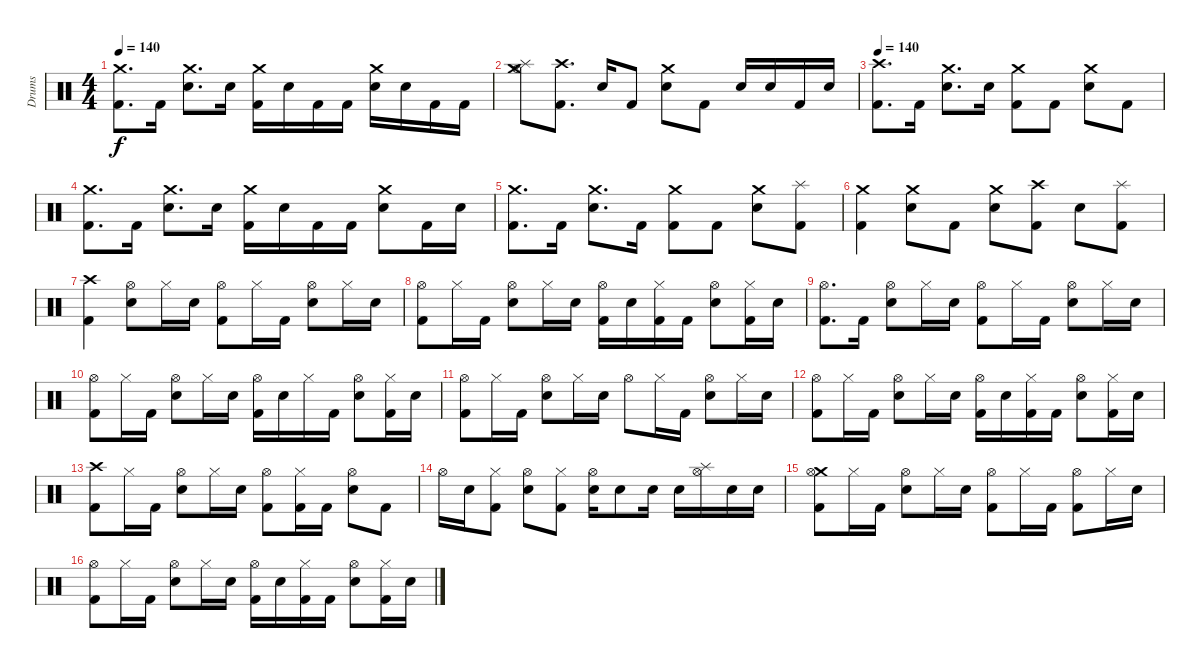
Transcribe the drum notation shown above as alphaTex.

\track ("Drums" "Drums") {instrument percussion}
\staff {score}
\articulation defaults
\ts (4 4)
\tempo 140
\clef neutral
\ks c
("Crash medium (hit)" "Kick (hit) 2").8{d dy f} "Kick (hit) 2".16 ("Crash medium (hit)" "Electric Snare (hit)").8{d} "Electric Snare (hit)".16 ("Crash medium (hit)" "Kick (hit) 2").16 "Electric Snare (hit)".16 "Kick (hit) 2".16 "Kick (hit) 2".16 ("Crash medium (hit)" "Electric Snare (hit)").16 "Electric Snare (hit)".16 "Kick (hit) 2".16 "Kick (hit) 2".16 |
("Crash medium (hit)" "Splash (hit)" "Hi-Hat (open)").8 ("Crash high (hit)" "Kick (hit) 2").8{d} "Electric Snare (hit)".16 "Kick (hit) 2".8 ("Crash medium (hit)" "Electric Snare (hit)").8 "Kick (hit) 2".8 "Electric Snare (hit)".16 "Electric Snare (hit)".16 "Kick (hit) 2".16 "Electric Snare (hit)".16 |
\tempo 140
("Crash high (hit)" "Kick (hit) 2").8{d} "Kick (hit) 2".16 ("Crash medium (hit)" "Electric Snare (hit)").8{d} "Electric Snare (hit)".16 ("Crash medium (hit)" "Kick (hit) 2").8 "Kick (hit) 2".8 ("Crash medium (hit)" "Electric Snare (hit)").8 "Kick (hit) 2".8 |
("Crash medium (hit)" "Kick (hit) 2").8{d} "Kick (hit) 2".16 ("Crash medium (hit)" "Electric Snare (hit)").8{d} "Electric Snare (hit)".16 ("Crash medium (hit)" "Kick (hit) 2").16 "Electric Snare (hit)".16 "Kick (hit) 2".16 "Kick (hit) 2".16 ("Crash medium (hit)" "Electric Snare (hit)").8 "Kick (hit) 2".16 "Electric Snare (hit)".16 |
("Crash medium (hit)" "Kick (hit) 2").8{d} "Kick (hit) 2".16 ("Crash medium (hit)" "Electric Snare (hit)").8{d} "Kick (hit) 2".16 ("Crash medium (hit)" "Kick (hit) 2").8 "Kick (hit) 2".8 ("Crash medium (hit)" "Electric Snare (hit)").8 ("Splash (hit)" "Kick (hit) 2").8 |
("Crash medium (hit)" "Kick (hit) 2").4 ("Crash medium (hit)" "Electric Snare (hit)").8 "Kick (hit) 2".8 ("Crash medium (hit)" "Electric Snare (hit)").8 ("Crash high (hit)" "Kick (hit) 2").8 "Electric Snare (hit)".8 ("Splash (hit)" "Kick (hit) 2").8 |
("Crash high (hit)" "Kick (hit) 2").4 ("Hi-Hat (open)" "Electric Snare (hit)").8 "Hi-Hat (closed)".16 "Electric Snare (hit)".16 ("Hi-Hat (open)" "Kick (hit) 2").8 "Hi-Hat (closed)".16 "Kick (hit) 2".16 ("Hi-Hat (open)" "Electric Snare (hit)").8 "Hi-Hat (closed)".16 "Electric Snare (hit)".16 |
("Hi-Hat (open)" "Kick (hit) 2").8 "Hi-Hat (closed)".16 "Kick (hit) 2".16 ("Hi-Hat (open)" "Electric Snare (hit)").8 "Hi-Hat (closed)".16 "Electric Snare (hit)".16 ("Hi-Hat (open)" "Kick (hit) 2").16 "Electric Snare (hit)".16 ("Hi-Hat (closed)" "Kick (hit) 2").16 "Kick (hit) 2".16 ("Hi-Hat (open)" "Electric Snare (hit)").8 ("Hi-Hat (closed)" "Kick (hit) 2").16 "Electric Snare (hit)".16 |
("Hi-Hat (open)" "Kick (hit) 2").8{d} "Kick (hit) 2".16 ("Hi-Hat (open)" "Electric Snare (hit)").8 "Hi-Hat (closed)".16 "Electric Snare (hit)".16 ("Hi-Hat (open)" "Kick (hit) 2").8 "Hi-Hat (closed)".16 "Kick (hit) 2".16 ("Hi-Hat (open)" "Electric Snare (hit)").8 "Hi-Hat (closed)".16 "Electric Snare (hit)".16 |
("Hi-Hat (open)" "Kick (hit) 2").8 "Hi-Hat (closed)".16 "Kick (hit) 2".16 ("Hi-Hat (open)" "Electric Snare (hit)").8 "Hi-Hat (closed)".16 "Electric Snare (hit)".16 ("Hi-Hat (open)" "Kick (hit) 2").16 "Electric Snare (hit)".16 "Hi-Hat (closed)".16 "Kick (hit) 2".16 ("Hi-Hat (open)" "Electric Snare (hit)").8 ("Hi-Hat (closed)" "Kick (hit) 2").16 "Electric Snare (hit)".16 |
("Hi-Hat (open)" "Kick (hit) 2").8 "Hi-Hat (closed)".16 "Kick (hit) 2".16 ("Hi-Hat (open)" "Electric Snare (hit)").8 "Hi-Hat (closed)".16 "Electric Snare (hit)".16 "Hi-Hat (open)".8 "Hi-Hat (closed)".16 "Kick (hit) 2".16 ("Hi-Hat (open)" "Electric Snare (hit)").8 "Hi-Hat (closed)".16 "Electric Snare (hit)".16 |
("Hi-Hat (open)" "Kick (hit) 2").8 "Hi-Hat (closed)".16 "Kick (hit) 2".16 ("Hi-Hat (open)" "Electric Snare (hit)").8 "Hi-Hat (closed)".16 "Electric Snare (hit)".16 ("Hi-Hat (open)" "Kick (hit) 2").16 "Electric Snare (hit)".16 ("Hi-Hat (closed)" "Kick (hit) 2").16 "Kick (hit) 2".16 ("Hi-Hat (open)" "Electric Snare (hit)").8 ("Hi-Hat (closed)" "Kick (hit) 2").16 "Electric Snare (hit)".16 |
("Crash high (hit)" "Kick (hit) 2").8 "Hi-Hat (closed)".16 "Kick (hit) 2".16 ("Hi-Hat (open)" "Electric Snare (hit)").8 "Hi-Hat (closed)".16 "Electric Snare (hit)".16 ("Hi-Hat (open)" "Kick (hit) 2").8 ("Hi-Hat (closed)" "Kick (hit) 2").16 "Kick (hit) 2".16 ("Hi-Hat (open)" "Electric Snare (hit)").8 "Kick (hit) 2".8 |
"Hi-Hat (open)".16 "Electric Snare (hit)".16 ("Hi-Hat (closed)" "Kick (hit) 2").8 ("Hi-Hat (open)" "Electric Snare (hit)").8 ("Hi-Hat (closed)" "Kick (hit) 2").8 ("Hi-Hat (open)" "Electric Snare (hit)").16 "Electric Snare (hit)".8 "Electric Snare (hit)".16 "Electric Snare (hit)".16 ("Splash (hit)" "Hi-Hat (open)").16 "Electric Snare (hit)".16 "Electric Snare (hit)".16 |
("Crash medium (hit)" "Hi-Hat (open)" "Kick (hit) 2").8 "Hi-Hat (closed)".16 "Kick (hit) 2".16 ("Hi-Hat (open)" "Electric Snare (hit)").8 "Hi-Hat (closed)".16 "Electric Snare (hit)".16 ("Hi-Hat (open)" "Kick (hit) 2").8 "Hi-Hat (closed)".16 "Kick (hit) 2".16 ("Hi-Hat (open)" "Kick (hit) 2").8 "Hi-Hat (closed)".16 "Electric Snare (hit)".16 |
("Hi-Hat (open)" "Kick (hit) 2").8 "Hi-Hat (closed)".16 "Kick (hit) 2".16 ("Hi-Hat (open)" "Electric Snare (hit)").8 "Hi-Hat (closed)".16 "Electric Snare (hit)".16 ("Hi-Hat (open)" "Kick (hit) 2").16 "Electric Snare (hit)".16 ("Hi-Hat (closed)" "Kick (hit) 2").16 "Kick (hit) 2".16 ("Hi-Hat (open)" "Electric Snare (hit)").8 ("Hi-Hat (closed)" "Kick (hit) 2").16 "Electric Snare (hit)".16
